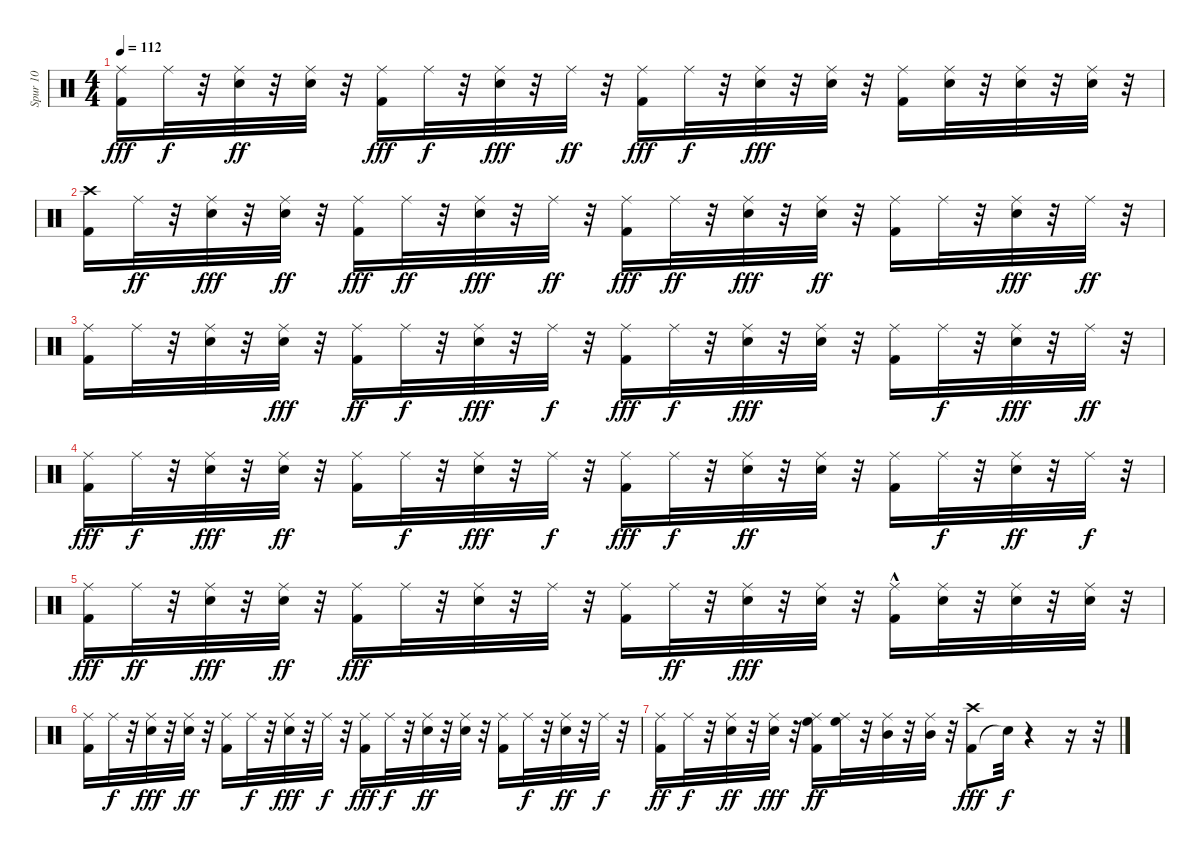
\track ("Spur 10" "Spur 10") {instrument percussion}
\staff {score}
\articulation defaults
\ts (4 4)
\tempo 112
\clef neutral
\ks c
("Kick (hit) 2" "Ride (middle)").16{dy fff} "Ride (middle)".32{dy f} r.32 ("Electric Snare (hit)" "Ride (middle)").32{dy ff} r.32 ("Electric Snare (hit)" "Ride (middle)").32 r.32 ("Kick (hit) 2" "Ride (middle)").16{dy fff} "Ride (middle)".32{dy f} r.32 ("Electric Snare (hit)" "Ride (middle)").32{dy fff} r.32 "Ride (middle)".32{dy ff} r.32 ("Kick (hit) 2" "Ride (middle)").16{dy fff} "Ride (middle)".32{dy f} r.32 ("Electric Snare (hit)" "Ride (middle)").32{dy fff} r.32 ("Electric Snare (hit)" "Ride (middle)").32 r.32 ("Kick (hit) 2" "Ride (middle)").16 ("Electric Snare (hit)" "Ride (middle)").32 r.32 ("Electric Snare (hit)" "Ride (middle)").32 r.32 ("Electric Snare (hit)" "Ride (middle)").32 r.32 |
("Kick (hit) 2" "Crash high (hit)").16 "Ride (middle)".32{dy ff} r.32 ("Electric Snare (hit)" "Ride (middle)").32{dy fff} r.32 ("Electric Snare (hit)" "Ride (middle)").32{dy ff} r.32 ("Kick (hit) 2" "Ride (middle)").16{dy fff} "Ride (middle)".32{dy ff} r.32 ("Electric Snare (hit)" "Ride (middle)").32{dy fff} r.32 "Ride (middle)".32{dy ff} r.32 ("Kick (hit) 2" "Ride (middle)").16{dy fff} "Ride (middle)".32{dy ff} r.32 ("Electric Snare (hit)" "Ride (middle)").32{dy fff} r.32 ("Electric Snare (hit)" "Ride (middle)").32{dy ff} r.32 ("Kick (hit) 2" "Ride (middle)").16 "Ride (middle)".32 r.32 ("Electric Snare (hit)" "Ride (middle)").32{dy fff} r.32 "Ride (middle)".32{dy ff} r.32 |
("Kick (hit) 2" "Ride (middle)").16 "Ride (middle)".32 r.32 ("Electric Snare (hit)" "Ride (middle)").32 r.32 ("Electric Snare (hit)" "Ride (middle)").32{dy fff} r.32 ("Kick (hit) 2" "Ride (middle)").16{dy ff} "Ride (middle)".32{dy f} r.32 ("Electric Snare (hit)" "Ride (middle)").32{dy fff} r.32 "Ride (middle)".32{dy f} r.32 ("Kick (hit) 2" "Ride (middle)").16{dy fff} "Ride (middle)".32{dy f} r.32 ("Electric Snare (hit)" "Ride (middle)").32{dy fff} r.32 ("Electric Snare (hit)" "Ride (middle)").32 r.32 ("Kick (hit) 2" "Ride (middle)").16 "Ride (middle)".32{dy f} r.32 ("Electric Snare (hit)" "Ride (middle)").32{dy fff} r.32 "Ride (middle)".32{dy ff} r.32 |
("Kick (hit) 2" "Ride (middle)").16{dy fff} "Ride (middle)".32{dy f} r.32 ("Electric Snare (hit)" "Ride (middle)").32{dy fff} r.32 ("Electric Snare (hit)" "Ride (middle)").32{dy ff} r.32 ("Kick (hit) 2" "Ride (middle)").16 "Ride (middle)".32{dy f} r.32 ("Electric Snare (hit)" "Ride (middle)").32{dy fff} r.32 "Ride (middle)".32{dy f} r.32 ("Kick (hit) 2" "Ride (middle)").16{dy fff} "Ride (middle)".32{dy f} r.32 ("Electric Snare (hit)" "Ride (middle)").32{dy ff} r.32 ("Electric Snare (hit)" "Ride (middle)").32 r.32 ("Kick (hit) 2" "Ride (middle)").16 "Ride (middle)".32{dy f} r.32 ("Electric Snare (hit)" "Ride (middle)").32{dy ff} r.32 "Ride (middle)".32{dy f} r.32 |
("Kick (hit) 2" "Ride (middle)").16{dy fff} "Ride (middle)".32{dy ff} r.32 ("Electric Snare (hit)" "Ride (middle)").32{dy fff} r.32 ("Electric Snare (hit)" "Ride (middle)").32{dy ff} r.32 ("Kick (hit) 2" "Ride (middle)").16{dy fff} "Ride (middle)".32 r.32 ("Electric Snare (hit)" "Ride (middle)").32 r.32 "Ride (middle)".32 r.32 ("Kick (hit) 2" "Ride (middle)").16 "Ride (middle)".32{dy ff} r.32 ("Electric Snare (hit)" "Ride (middle)").32{dy fff} r.32 ("Electric Snare (hit)" "Ride (middle)").32 r.32 ("Kick (hit) 2"{hac} "Ride (middle)").16 ("Electric Snare (hit)" "Ride (middle)").32 r.32 ("Electric Snare (hit)" "Ride (middle)").32 r.32 ("Electric Snare (hit)" "Ride (middle)").32 r.32 |
("Kick (hit) 2" "Ride (middle)").16 "Ride (middle)".32{dy f} r.32 ("Electric Snare (hit)" "Ride (middle)").32{dy fff} r.32 ("Electric Snare (hit)" "Ride (middle)").32{dy ff} r.32 ("Kick (hit) 2" "Ride (middle)").16 "Ride (middle)".32{dy f} r.32 ("Electric Snare (hit)" "Ride (middle)").32{dy fff} r.32 "Ride (middle)".32{dy f} r.32 ("Kick (hit) 2" "Ride (middle)").16{dy fff} "Ride (middle)".32{dy f} r.32 ("Electric Snare (hit)" "Ride (middle)").32{dy ff} r.32 ("Electric Snare (hit)" "Ride (middle)").32 r.32 ("Kick (hit) 2" "Ride (middle)").16 "Ride (middle)".32{dy f} r.32 ("Electric Snare (hit)" "Ride (middle)").32{dy ff} r.32 "Ride (middle)".32{dy f} r.32 |
("Kick (hit) 2" "Ride (middle)").16{dy ff} "Ride (middle)".32{dy f} r.32 ("Electric Snare (hit)" "Ride (middle)").32{dy ff} r.32 ("Electric Snare (hit)" "Ride (middle)").32{dy fff} r.32 ("Kick (hit) 2" "High Floor Tom (hit)" "Ride (middle)").16{dy ff} ("High Floor Tom (hit)" "Ride (middle)").32 r.32 ("Mid Tom (hit)" "Ride (middle)").32 r.32 ("Mid Tom (hit)" "Ride (middle)").32 r.32 ("Kick (hit) 2" "Crash high (hit)").8{dy fff} "Snare (hit)"{t}.32{dy f} r.4 r.16 r.32
